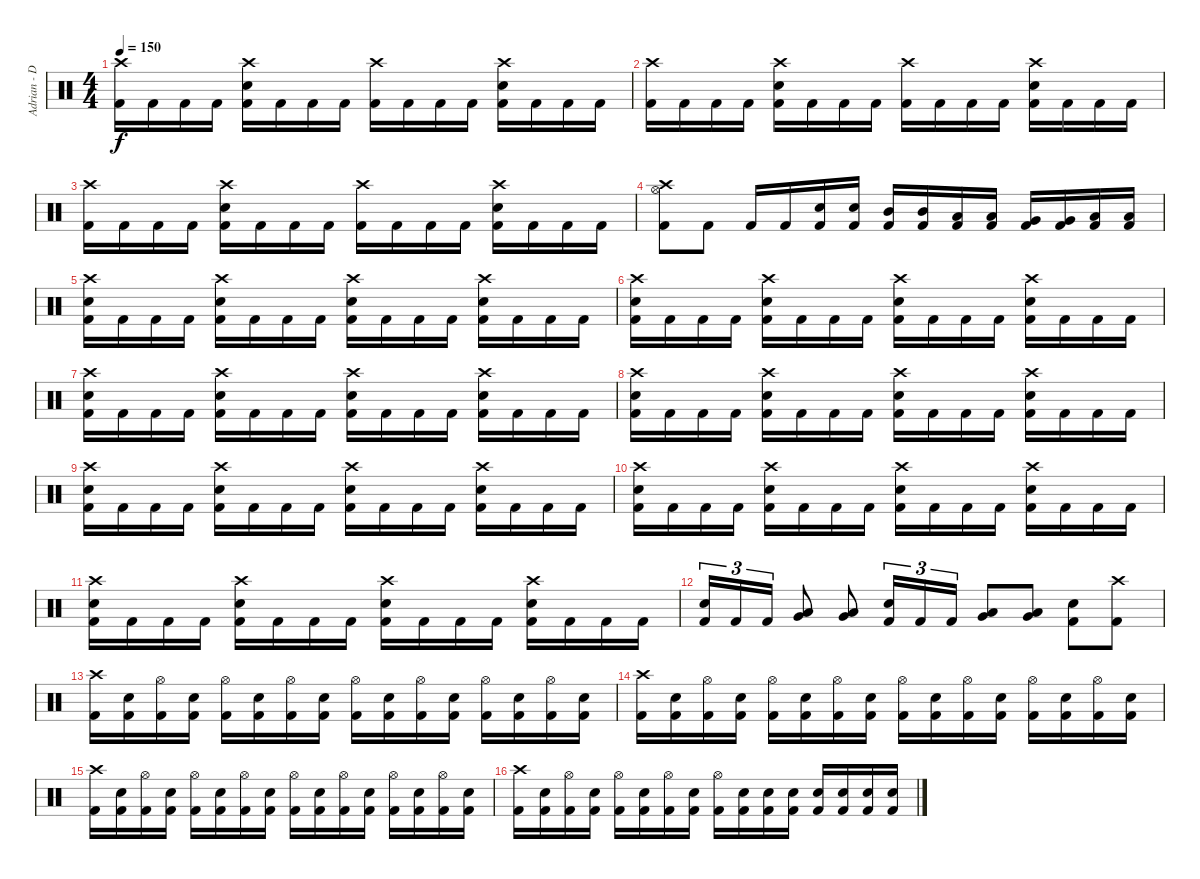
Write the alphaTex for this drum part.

\track ("Adrian - Drums" "Adrian - D") {instrument percussion}
\staff {score}
\articulation defaults
\ts (4 4)
\tempo 150
\clef neutral
\ks c
("Crash high (hit)" "Kick (hit) 2").16{dy f} "Kick (hit) 2".16 "Kick (hit) 2".16 "Kick (hit) 2".16 ("Crash high (hit)" "Electric Snare (hit)" "Kick (hit) 2").16 "Kick (hit) 2".16 "Kick (hit) 2".16 "Kick (hit) 2".16 ("Crash high (hit)" "Kick (hit) 2").16 "Kick (hit) 2".16 "Kick (hit) 2".16 "Kick (hit) 2".16 ("Crash high (hit)" "Electric Snare (hit)" "Kick (hit) 2").16 "Kick (hit) 2".16 "Kick (hit) 2".16 "Kick (hit) 2".16 |
("Crash high (hit)" "Kick (hit) 2").16 "Kick (hit) 2".16 "Kick (hit) 2".16 "Kick (hit) 2".16 ("Crash high (hit)" "Electric Snare (hit)" "Kick (hit) 2").16 "Kick (hit) 2".16 "Kick (hit) 2".16 "Kick (hit) 2".16 ("Crash high (hit)" "Kick (hit) 2").16 "Kick (hit) 2".16 "Kick (hit) 2".16 "Kick (hit) 2".16 ("Crash high (hit)" "Electric Snare (hit)" "Kick (hit) 2").16 "Kick (hit) 2".16 "Kick (hit) 2".16 "Kick (hit) 2".16 |
("Crash high (hit)" "Kick (hit) 2").16 "Kick (hit) 2".16 "Kick (hit) 2".16 "Kick (hit) 2".16 ("Crash high (hit)" "Electric Snare (hit)" "Kick (hit) 2").16 "Kick (hit) 2".16 "Kick (hit) 2".16 "Kick (hit) 2".16 ("Crash high (hit)" "Kick (hit) 2").16 "Kick (hit) 2".16 "Kick (hit) 2".16 "Kick (hit) 2".16 ("Crash high (hit)" "Electric Snare (hit)" "Kick (hit) 2").16 "Kick (hit) 2".16 "Kick (hit) 2".16 "Kick (hit) 2".16 |
("Crash high (hit)" "Hi-Hat (open)" "Kick (hit) 2").8 "Kick (hit) 2".8 "Kick (hit) 2".16 "Kick (hit) 2".16 ("Electric Snare (hit)" "Kick (hit) 2").16 ("Electric Snare (hit)" "Kick (hit) 2").16 ("Mid Tom (hit)" "Kick (hit) 2").16 ("Mid Tom (hit)" "Kick (hit) 2").16 ("Low Tom (hit)" "Kick (hit) 2").16 ("Low Tom (hit)" "Kick (hit) 2").16 ("Very Low Tom (hit)" "Kick (hit) 2").16 ("Very Low Tom (hit)" "Kick (hit) 2").16 ("Low Floor Tom (hit)" "Kick (hit) 2").16 ("Low Floor Tom (hit)" "Kick (hit) 2").16 |
("Crash high (hit)" "Electric Snare (hit)" "Kick (hit) 2").16 "Kick (hit) 2".16 "Kick (hit) 2".16 "Kick (hit) 2".16 ("Crash high (hit)" "Electric Snare (hit)" "Kick (hit) 2").16 "Kick (hit) 2".16 "Kick (hit) 2".16 "Kick (hit) 2".16 ("Crash high (hit)" "Electric Snare (hit)" "Kick (hit) 2").16 "Kick (hit) 2".16 "Kick (hit) 2".16 "Kick (hit) 2".16 ("Crash high (hit)" "Electric Snare (hit)" "Kick (hit) 2").16 "Kick (hit) 2".16 "Kick (hit) 2".16 "Kick (hit) 2".16 |
("Crash high (hit)" "Electric Snare (hit)" "Kick (hit) 2").16 "Kick (hit) 2".16 "Kick (hit) 2".16 "Kick (hit) 2".16 ("Crash high (hit)" "Electric Snare (hit)" "Kick (hit) 2").16 "Kick (hit) 2".16 "Kick (hit) 2".16 "Kick (hit) 2".16 ("Crash high (hit)" "Electric Snare (hit)" "Kick (hit) 2").16 "Kick (hit) 2".16 "Kick (hit) 2".16 "Kick (hit) 2".16 ("Crash high (hit)" "Electric Snare (hit)" "Kick (hit) 2").16 "Kick (hit) 2".16 "Kick (hit) 2".16 "Kick (hit) 2".16 |
("Crash high (hit)" "Electric Snare (hit)" "Kick (hit) 2").16 "Kick (hit) 2".16 "Kick (hit) 2".16 "Kick (hit) 2".16 ("Crash high (hit)" "Electric Snare (hit)" "Kick (hit) 2").16 "Kick (hit) 2".16 "Kick (hit) 2".16 "Kick (hit) 2".16 ("Crash high (hit)" "Electric Snare (hit)" "Kick (hit) 2").16 "Kick (hit) 2".16 "Kick (hit) 2".16 "Kick (hit) 2".16 ("Crash high (hit)" "Electric Snare (hit)" "Kick (hit) 2").16 "Kick (hit) 2".16 "Kick (hit) 2".16 "Kick (hit) 2".16 |
("Crash high (hit)" "Electric Snare (hit)" "Kick (hit) 2").16 "Kick (hit) 2".16 "Kick (hit) 2".16 "Kick (hit) 2".16 ("Crash high (hit)" "Electric Snare (hit)" "Kick (hit) 2").16 "Kick (hit) 2".16 "Kick (hit) 2".16 "Kick (hit) 2".16 ("Crash high (hit)" "Electric Snare (hit)" "Kick (hit) 2").16 "Kick (hit) 2".16 "Kick (hit) 2".16 "Kick (hit) 2".16 ("Crash high (hit)" "Electric Snare (hit)" "Kick (hit) 2").16 "Kick (hit) 2".16 "Kick (hit) 2".16 "Kick (hit) 2".16 |
("Crash high (hit)" "Electric Snare (hit)" "Kick (hit) 2").16 "Kick (hit) 2".16 "Kick (hit) 2".16 "Kick (hit) 2".16 ("Crash high (hit)" "Electric Snare (hit)" "Kick (hit) 2").16 "Kick (hit) 2".16 "Kick (hit) 2".16 "Kick (hit) 2".16 ("Crash high (hit)" "Electric Snare (hit)" "Kick (hit) 2").16 "Kick (hit) 2".16 "Kick (hit) 2".16 "Kick (hit) 2".16 ("Crash high (hit)" "Electric Snare (hit)" "Kick (hit) 2").16 "Kick (hit) 2".16 "Kick (hit) 2".16 "Kick (hit) 2".16 |
("Crash high (hit)" "Electric Snare (hit)" "Kick (hit) 2").16 "Kick (hit) 2".16 "Kick (hit) 2".16 "Kick (hit) 2".16 ("Crash high (hit)" "Electric Snare (hit)" "Kick (hit) 2").16 "Kick (hit) 2".16 "Kick (hit) 2".16 "Kick (hit) 2".16 ("Crash high (hit)" "Electric Snare (hit)" "Kick (hit) 2").16 "Kick (hit) 2".16 "Kick (hit) 2".16 "Kick (hit) 2".16 ("Crash high (hit)" "Electric Snare (hit)" "Kick (hit) 2").16 "Kick (hit) 2".16 "Kick (hit) 2".16 "Kick (hit) 2".16 |
("Crash high (hit)" "Electric Snare (hit)" "Kick (hit) 2").16 "Kick (hit) 2".16 "Kick (hit) 2".16 "Kick (hit) 2".16 ("Crash high (hit)" "Electric Snare (hit)" "Kick (hit) 2").16 "Kick (hit) 2".16 "Kick (hit) 2".16 "Kick (hit) 2".16 ("Crash high (hit)" "Electric Snare (hit)" "Kick (hit) 2").16 "Kick (hit) 2".16 "Kick (hit) 2".16 "Kick (hit) 2".16 ("Crash high (hit)" "Electric Snare (hit)" "Kick (hit) 2").16 "Kick (hit) 2".16 "Kick (hit) 2".16 "Kick (hit) 2".16 |
("Electric Snare (hit)" "Kick (hit) 2").16{tu (3 2)} "Kick (hit) 2".16{tu (3 2)} "Kick (hit) 2".16{tu (3 2)} ("Very Low Tom (hit)" "Low Tom (hit)").8 ("Very Low Tom (hit)" "Low Tom (hit)").8 ("Electric Snare (hit)" "Kick (hit) 2").16{tu (3 2)} "Kick (hit) 2".16{tu (3 2)} "Kick (hit) 2".16{tu (3 2)} ("Very Low Tom (hit)" "Low Tom (hit)").8 ("Very Low Tom (hit)" "Low Tom (hit)").8 ("Electric Snare (hit)" "Kick (hit) 2").8 ("Crash high (hit)" "Kick (hit) 2").8 |
("Crash high (hit)" "Kick (hit) 2").16 ("Electric Snare (hit)" "Kick (hit) 2").16 ("Hi-Hat (open)" "Kick (hit) 2").16 ("Electric Snare (hit)" "Kick (hit) 2").16 ("Hi-Hat (open)" "Kick (hit) 2").16 ("Electric Snare (hit)" "Kick (hit) 2").16 ("Hi-Hat (open)" "Kick (hit) 2").16 ("Electric Snare (hit)" "Kick (hit) 2").16 ("Hi-Hat (open)" "Kick (hit) 2").16 ("Electric Snare (hit)" "Kick (hit) 2").16 ("Hi-Hat (open)" "Kick (hit) 2").16 ("Electric Snare (hit)" "Kick (hit) 2").16 ("Hi-Hat (open)" "Kick (hit) 2").16 ("Electric Snare (hit)" "Kick (hit) 2").16 ("Hi-Hat (open)" "Kick (hit) 2").16 ("Electric Snare (hit)" "Kick (hit) 2").16 |
("Crash high (hit)" "Kick (hit) 2").16 ("Electric Snare (hit)" "Kick (hit) 2").16 ("Hi-Hat (open)" "Kick (hit) 2").16 ("Electric Snare (hit)" "Kick (hit) 2").16 ("Hi-Hat (open)" "Kick (hit) 2").16 ("Electric Snare (hit)" "Kick (hit) 2").16 ("Hi-Hat (open)" "Kick (hit) 2").16 ("Electric Snare (hit)" "Kick (hit) 2").16 ("Hi-Hat (open)" "Kick (hit) 2").16 ("Electric Snare (hit)" "Kick (hit) 2").16 ("Hi-Hat (open)" "Kick (hit) 2").16 ("Electric Snare (hit)" "Kick (hit) 2").16 ("Hi-Hat (open)" "Kick (hit) 2").16 ("Electric Snare (hit)" "Kick (hit) 2").16 ("Hi-Hat (open)" "Kick (hit) 2").16 ("Electric Snare (hit)" "Kick (hit) 2").16 |
("Crash high (hit)" "Kick (hit) 2").16 ("Electric Snare (hit)" "Kick (hit) 2").16 ("Hi-Hat (open)" "Kick (hit) 2").16 ("Electric Snare (hit)" "Kick (hit) 2").16 ("Hi-Hat (open)" "Kick (hit) 2").16 ("Electric Snare (hit)" "Kick (hit) 2").16 ("Hi-Hat (open)" "Kick (hit) 2").16 ("Electric Snare (hit)" "Kick (hit) 2").16 ("Hi-Hat (open)" "Kick (hit) 2").16 ("Electric Snare (hit)" "Kick (hit) 2").16 ("Hi-Hat (open)" "Kick (hit) 2").16 ("Electric Snare (hit)" "Kick (hit) 2").16 ("Hi-Hat (open)" "Kick (hit) 2").16 ("Electric Snare (hit)" "Kick (hit) 2").16 ("Hi-Hat (open)" "Kick (hit) 2").16 ("Electric Snare (hit)" "Kick (hit) 2").16 |
("Crash high (hit)" "Kick (hit) 2").16 ("Electric Snare (hit)" "Kick (hit) 2").16 ("Hi-Hat (open)" "Kick (hit) 2").16 ("Electric Snare (hit)" "Kick (hit) 2").16 ("Hi-Hat (open)" "Kick (hit) 2").16 ("Electric Snare (hit)" "Kick (hit) 2").16 ("Hi-Hat (open)" "Kick (hit) 2").16 ("Electric Snare (hit)" "Kick (hit) 2").16 ("Hi-Hat (open)" "Kick (hit) 2").16 ("Electric Snare (hit)" "Kick (hit) 2").16 ("Electric Snare (hit)" "Kick (hit) 2").16 ("Electric Snare (hit)" "Kick (hit) 2").16 ("Electric Snare (hit)" "Kick (hit) 2").16 ("Electric Snare (hit)" "Kick (hit) 2").16 ("Electric Snare (hit)" "Kick (hit) 2").16 ("Electric Snare (hit)" "Kick (hit) 2").16
